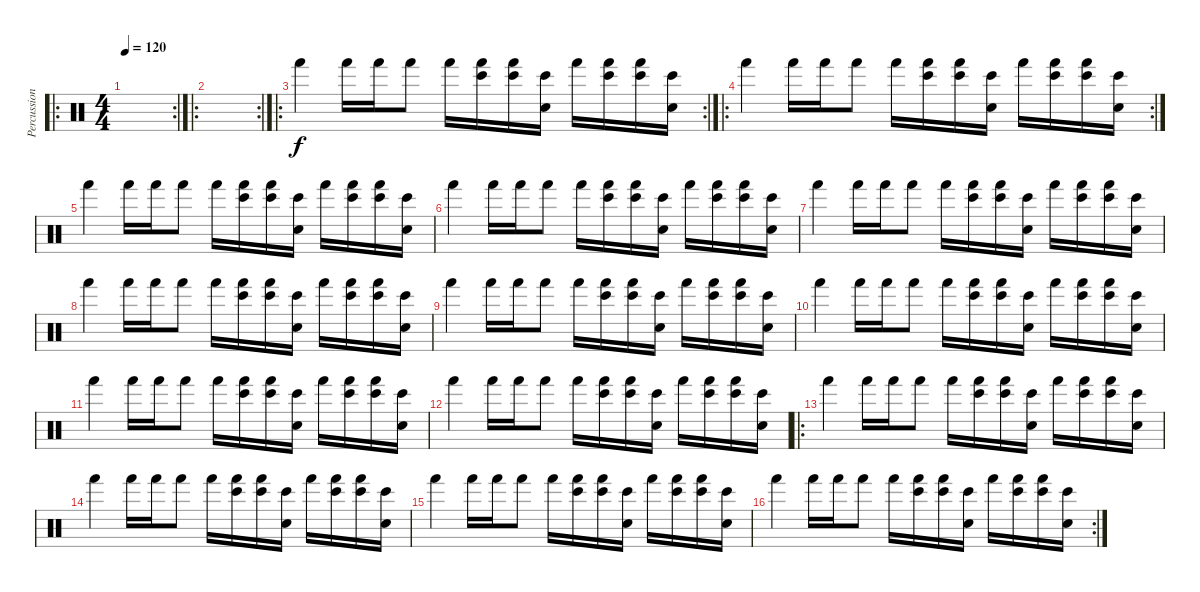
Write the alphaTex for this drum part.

\track ("Percussions" "Percussion") {instrument percussion}
\staff {score}
\articulation defaults
\ro
\rc 2
\ts (4 4)
\tempo 120
\clef neutral
\ks c
|
\ro
\rc 2
|
\ro
\rc 2 "Hand (hit)".4 "Hand (hit)".16 "Hand (hit)".16 "Hand (hit)".8 "Hand (hit)".16
("Hand (hit)" "Bongo High (hit)").16 ("Hand (hit)" "Bongo High (hit)").16 ("Snare (hit)" "Bongo High (hit)").16 "Hand (hit)".16 ("Hand (hit)" "Bongo High (hit)").16 ("Hand (hit)" "Bongo High (hit)").16 ("Snare (hit)" "Bongo High (hit)").16 |
\ro
\rc 2 "Hand (hit)".4 "Hand (hit)".16 "Hand (hit)".16 "Hand (hit)".8 "Hand (hit)".16
("Hand (hit)" "Bongo High (hit)").16 ("Hand (hit)" "Bongo High (hit)").16 ("Snare (hit)" "Bongo High (hit)").16 "Hand (hit)".16 ("Hand (hit)" "Bongo High (hit)").16 ("Hand (hit)" "Bongo High (hit)").16 ("Snare (hit)" "Bongo High (hit)").16 |
"Hand (hit)".4 "Hand (hit)".16 "Hand (hit)".16 "Hand (hit)".8 "Hand (hit)".16 ("Hand (hit)" "Bongo High (hit)").16 ("Hand (hit)" "Bongo High (hit)").16 ("Snare (hit)" "Bongo High (hit)").16 "Hand (hit)".16 ("Hand (hit)" "Bongo High (hit)").16 ("Hand (hit)" "Bongo High (hit)").16 ("Snare (hit)" "Bongo High (hit)").16 |
"Hand (hit)".4 "Hand (hit)".16 "Hand (hit)".16 "Hand (hit)".8 "Hand (hit)".16 ("Hand (hit)" "Bongo High (hit)").16 ("Hand (hit)" "Bongo High (hit)").16 ("Snare (hit)" "Bongo High (hit)").16 "Hand (hit)".16 ("Hand (hit)" "Bongo High (hit)").16 ("Hand (hit)" "Bongo High (hit)").16 ("Snare (hit)" "Bongo High (hit)").16 |
"Hand (hit)".4 "Hand (hit)".16 "Hand (hit)".16 "Hand (hit)".8 "Hand (hit)".16 ("Hand (hit)" "Bongo High (hit)").16 ("Hand (hit)" "Bongo High (hit)").16 ("Snare (hit)" "Bongo High (hit)").16 "Hand (hit)".16 ("Hand (hit)" "Bongo High (hit)").16 ("Hand (hit)" "Bongo High (hit)").16 ("Snare (hit)" "Bongo High (hit)").16 |
"Hand (hit)".4 "Hand (hit)".16 "Hand (hit)".16 "Hand (hit)".8 "Hand (hit)".16 ("Hand (hit)" "Bongo High (hit)").16 ("Hand (hit)" "Bongo High (hit)").16 ("Snare (hit)" "Bongo High (hit)").16 "Hand (hit)".16 ("Hand (hit)" "Bongo High (hit)").16 ("Hand (hit)" "Bongo High (hit)").16 ("Snare (hit)" "Bongo High (hit)").16 |
"Hand (hit)".4 "Hand (hit)".16 "Hand (hit)".16 "Hand (hit)".8 "Hand (hit)".16 ("Hand (hit)" "Bongo High (hit)").16 ("Hand (hit)" "Bongo High (hit)").16 ("Snare (hit)" "Bongo High (hit)").16 "Hand (hit)".16 ("Hand (hit)" "Bongo High (hit)").16 ("Hand (hit)" "Bongo High (hit)").16 ("Snare (hit)" "Bongo High (hit)").16 |
"Hand (hit)".4 "Hand (hit)".16 "Hand (hit)".16 "Hand (hit)".8 "Hand (hit)".16 ("Hand (hit)" "Bongo High (hit)").16 ("Hand (hit)" "Bongo High (hit)").16 ("Snare (hit)" "Bongo High (hit)").16 "Hand (hit)".16 ("Hand (hit)" "Bongo High (hit)").16 ("Hand (hit)" "Bongo High (hit)").16 ("Snare (hit)" "Bongo High (hit)").16 |
"Hand (hit)".4 "Hand (hit)".16 "Hand (hit)".16 "Hand (hit)".8 "Hand (hit)".16 ("Hand (hit)" "Bongo High (hit)").16 ("Hand (hit)" "Bongo High (hit)").16 ("Snare (hit)" "Bongo High (hit)").16 "Hand (hit)".16 ("Hand (hit)" "Bongo High (hit)").16 ("Hand (hit)" "Bongo High (hit)").16 ("Snare (hit)" "Bongo High (hit)").16 |
"Hand (hit)".4 "Hand (hit)".16 "Hand (hit)".16 "Hand (hit)".8 "Hand (hit)".16 ("Hand (hit)" "Bongo High (hit)").16 ("Hand (hit)" "Bongo High (hit)").16 ("Snare (hit)" "Bongo High (hit)").16 "Hand (hit)".16 ("Hand (hit)" "Bongo High (hit)").16 ("Hand (hit)" "Bongo High (hit)").16 ("Snare (hit)" "Bongo High (hit)").16 |
\ro "Hand (hit)".4 "Hand (hit)".16 "Hand (hit)".16 "Hand (hit)".8 "Hand (hit)".16
("Hand (hit)" "Bongo High (hit)").16 ("Hand (hit)" "Bongo High (hit)").16 ("Snare (hit)" "Bongo High (hit)").16 "Hand (hit)".16 ("Hand (hit)" "Bongo High (hit)").16 ("Hand (hit)" "Bongo High (hit)").16 ("Snare (hit)" "Bongo High (hit)").16 |
"Hand (hit)".4 "Hand (hit)".16 "Hand (hit)".16 "Hand (hit)".8 "Hand (hit)".16 ("Hand (hit)" "Bongo High (hit)").16 ("Hand (hit)" "Bongo High (hit)").16 ("Snare (hit)" "Bongo High (hit)").16 "Hand (hit)".16 ("Hand (hit)" "Bongo High (hit)").16 ("Hand (hit)" "Bongo High (hit)").16 ("Snare (hit)" "Bongo High (hit)").16 |
"Hand (hit)".4 "Hand (hit)".16 "Hand (hit)".16 "Hand (hit)".8 "Hand (hit)".16 ("Hand (hit)" "Bongo High (hit)").16 ("Hand (hit)" "Bongo High (hit)").16 ("Snare (hit)" "Bongo High (hit)").16 "Hand (hit)".16 ("Hand (hit)" "Bongo High (hit)").16 ("Hand (hit)" "Bongo High (hit)").16 ("Snare (hit)" "Bongo High (hit)").16 |
\rc 2 "Hand (hit)".4 "Hand (hit)".16 "Hand (hit)".16 "Hand (hit)".8 "Hand (hit)".16
("Hand (hit)" "Bongo High (hit)").16 ("Hand (hit)" "Bongo High (hit)").16 ("Snare (hit)" "Bongo High (hit)").16 "Hand (hit)".16 ("Hand (hit)" "Bongo High (hit)").16 ("Hand (hit)" "Bongo High (hit)").16 ("Snare (hit)" "Bongo High (hit)").16
